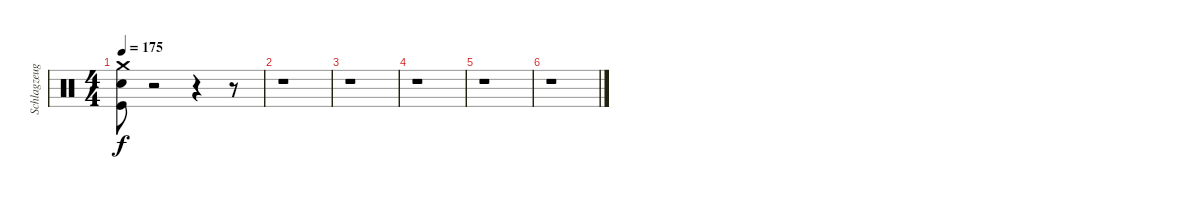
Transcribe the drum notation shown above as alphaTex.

\track ("Schlagzeug - Bela B." "Schlagzeug") {instrument percussion}
\staff {score}
\articulation defaults
\ts (4 4)
\tempo 175
\clef neutral
\ks c
("Kick (hit)" "Electric Snare (hit)" "Crash medium (hit)").8{dy f} r.2 r.4 r.8 |
r.1 |
r.1 |
r.1 |
r.1 |
r.1
